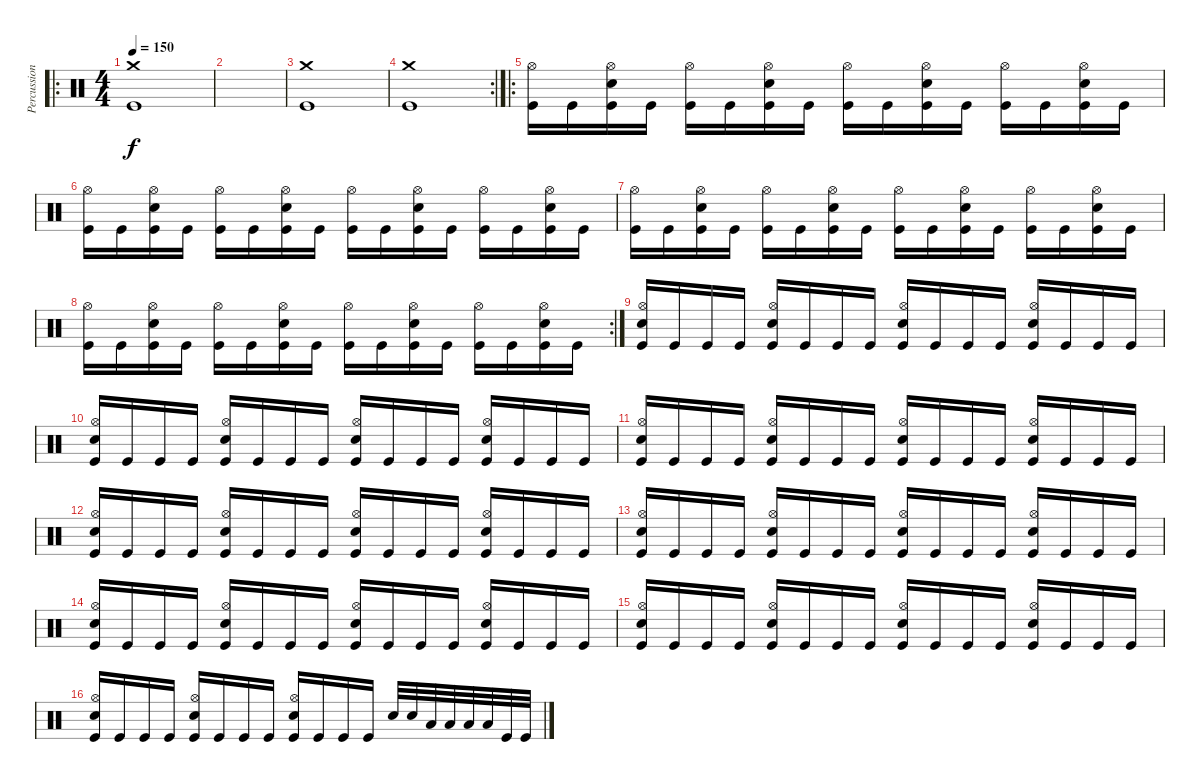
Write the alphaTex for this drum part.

\track ("Percussion" "Percussion") {instrument percussion}
\staff {score}
\articulation defaults
\ro
\ts (4 4)
\tempo 150
\clef neutral
\ks c
("Crash medium (hit)" "Kick (hit)").1{dy f} |
|
("Crash medium (hit)" "Kick (hit)").1 |
\rc 2
("Crash medium (hit)" "Kick (hit)").1 |
\ro
("Hi-Hat (open)" "Kick (hit)").16 "Kick (hit)".16 ("Hi-Hat (open)" "Snare (hit) 2" "Kick (hit)").16 "Kick (hit)".16 ("Hi-Hat (open)" "Kick (hit)").16 "Kick (hit)".16 ("Hi-Hat (open)" "Snare (hit) 2" "Kick (hit)").16 "Kick (hit)".16 ("Hi-Hat (open)" "Kick (hit)").16 "Kick (hit)".16 ("Hi-Hat (open)" "Snare (hit) 2" "Kick (hit)").16 "Kick (hit)".16 ("Hi-Hat (open)" "Kick (hit)").16 "Kick (hit)".16 ("Hi-Hat (open)" "Snare (hit) 2" "Kick (hit)").16 "Kick (hit)".16 |
("Hi-Hat (open)" "Kick (hit)").16 "Kick (hit)".16 ("Hi-Hat (open)" "Snare (hit) 2" "Kick (hit)").16 "Kick (hit)".16 ("Hi-Hat (open)" "Kick (hit)").16 "Kick (hit)".16 ("Hi-Hat (open)" "Snare (hit) 2" "Kick (hit)").16 "Kick (hit)".16 ("Hi-Hat (open)" "Kick (hit)").16 "Kick (hit)".16 ("Hi-Hat (open)" "Snare (hit) 2" "Kick (hit)").16 "Kick (hit)".16 ("Hi-Hat (open)" "Kick (hit)").16 "Kick (hit)".16 ("Hi-Hat (open)" "Snare (hit) 2" "Kick (hit)").16 "Kick (hit)".16 |
("Hi-Hat (open)" "Kick (hit)").16 "Kick (hit)".16 ("Hi-Hat (open)" "Snare (hit) 2" "Kick (hit)").16 "Kick (hit)".16 ("Hi-Hat (open)" "Kick (hit)").16 "Kick (hit)".16 ("Hi-Hat (open)" "Snare (hit) 2" "Kick (hit)").16 "Kick (hit)".16 ("Hi-Hat (open)" "Kick (hit)").16 "Kick (hit)".16 ("Hi-Hat (open)" "Snare (hit) 2" "Kick (hit)").16 "Kick (hit)".16 ("Hi-Hat (open)" "Kick (hit)").16 "Kick (hit)".16 ("Hi-Hat (open)" "Snare (hit) 2" "Kick (hit)").16 "Kick (hit)".16 |
\rc 2
("Hi-Hat (open)" "Kick (hit)").16 "Kick (hit)".16 ("Hi-Hat (open)" "Snare (hit) 2" "Kick (hit)").16 "Kick (hit)".16 ("Hi-Hat (open)" "Kick (hit)").16 "Kick (hit)".16 ("Hi-Hat (open)" "Snare (hit) 2" "Kick (hit)").16 "Kick (hit)".16 ("Hi-Hat (open)" "Kick (hit)").16 "Kick (hit)".16 ("Hi-Hat (open)" "Snare (hit) 2" "Kick (hit)").16 "Kick (hit)".16 ("Hi-Hat (open)" "Kick (hit)").16 "Kick (hit)".16 ("Hi-Hat (open)" "Snare (hit) 2" "Kick (hit)").16 "Kick (hit)".16 |
("Hi-Hat (open)" "Snare (hit) 2" "Kick (hit)").16 "Kick (hit)".16 "Kick (hit)".16 "Kick (hit)".16 ("Hi-Hat (open)" "Snare (hit) 2" "Kick (hit)").16 "Kick (hit)".16 "Kick (hit)".16 "Kick (hit)".16 ("Hi-Hat (open)" "Snare (hit) 2" "Kick (hit)").16 "Kick (hit)".16 "Kick (hit)".16 "Kick (hit)".16 ("Hi-Hat (open)" "Snare (hit) 2" "Kick (hit)").16 "Kick (hit)".16 "Kick (hit)".16 "Kick (hit)".16 |
("Hi-Hat (open)" "Snare (hit) 2" "Kick (hit)").16 "Kick (hit)".16 "Kick (hit)".16 "Kick (hit)".16 ("Hi-Hat (open)" "Snare (hit) 2" "Kick (hit)").16 "Kick (hit)".16 "Kick (hit)".16 "Kick (hit)".16 ("Hi-Hat (open)" "Snare (hit) 2" "Kick (hit)").16 "Kick (hit)".16 "Kick (hit)".16 "Kick (hit)".16 ("Hi-Hat (open)" "Snare (hit) 2" "Kick (hit)").16 "Kick (hit)".16 "Kick (hit)".16 "Kick (hit)".16 |
("Hi-Hat (open)" "Snare (hit) 2" "Kick (hit)").16 "Kick (hit)".16 "Kick (hit)".16 "Kick (hit)".16 ("Hi-Hat (open)" "Snare (hit) 2" "Kick (hit)").16 "Kick (hit)".16 "Kick (hit)".16 "Kick (hit)".16 ("Hi-Hat (open)" "Snare (hit) 2" "Kick (hit)").16 "Kick (hit)".16 "Kick (hit)".16 "Kick (hit)".16 ("Hi-Hat (open)" "Snare (hit) 2" "Kick (hit)").16 "Kick (hit)".16 "Kick (hit)".16 "Kick (hit)".16 |
("Hi-Hat (open)" "Snare (hit) 2" "Kick (hit)").16 "Kick (hit)".16 "Kick (hit)".16 "Kick (hit)".16 ("Hi-Hat (open)" "Snare (hit) 2" "Kick (hit)").16 "Kick (hit)".16 "Kick (hit)".16 "Kick (hit)".16 ("Hi-Hat (open)" "Snare (hit) 2" "Kick (hit)").16 "Kick (hit)".16 "Kick (hit)".16 "Kick (hit)".16 ("Hi-Hat (open)" "Snare (hit) 2" "Kick (hit)").16 "Kick (hit)".16 "Kick (hit)".16 "Kick (hit)".16 |
("Hi-Hat (open)" "Snare (hit) 2" "Kick (hit)").16 "Kick (hit)".16 "Kick (hit)".16 "Kick (hit)".16 ("Hi-Hat (open)" "Snare (hit) 2" "Kick (hit)").16 "Kick (hit)".16 "Kick (hit)".16 "Kick (hit)".16 ("Hi-Hat (open)" "Snare (hit) 2" "Kick (hit)").16 "Kick (hit)".16 "Kick (hit)".16 "Kick (hit)".16 ("Hi-Hat (open)" "Snare (hit) 2" "Kick (hit)").16 "Kick (hit)".16 "Kick (hit)".16 "Kick (hit)".16 |
("Hi-Hat (open)" "Snare (hit) 2" "Kick (hit)").16 "Kick (hit)".16 "Kick (hit)".16 "Kick (hit)".16 ("Hi-Hat (open)" "Snare (hit) 2" "Kick (hit)").16 "Kick (hit)".16 "Kick (hit)".16 "Kick (hit)".16 ("Hi-Hat (open)" "Snare (hit) 2" "Kick (hit)").16 "Kick (hit)".16 "Kick (hit)".16 "Kick (hit)".16 ("Hi-Hat (open)" "Snare (hit) 2" "Kick (hit)").16 "Kick (hit)".16 "Kick (hit)".16 "Kick (hit)".16 |
("Hi-Hat (open)" "Snare (hit) 2" "Kick (hit)").16 "Kick (hit)".16 "Kick (hit)".16 "Kick (hit)".16 ("Hi-Hat (open)" "Snare (hit) 2" "Kick (hit)").16 "Kick (hit)".16 "Kick (hit)".16 "Kick (hit)".16 ("Hi-Hat (open)" "Snare (hit) 2" "Kick (hit)").16 "Kick (hit)".16 "Kick (hit)".16 "Kick (hit)".16 ("Hi-Hat (open)" "Snare (hit) 2" "Kick (hit)").16 "Kick (hit)".16 "Kick (hit)".16 "Kick (hit)".16 |
("Hi-Hat (open)" "Snare (hit) 2" "Kick (hit)").16 "Kick (hit)".16 "Kick (hit)".16 "Kick (hit)".16 ("Hi-Hat (open)" "Snare (hit) 2" "Kick (hit)").16 "Kick (hit)".16 "Kick (hit)".16 "Kick (hit)".16 ("Hi-Hat (open)" "Snare (hit) 2" "Kick (hit)").16 "Kick (hit)".16 "Kick (hit)".16 "Kick (hit)".16 "Snare (hit) 2".32 "Snare (hit) 2".32 "Low Tom (hit)".32 "Low Tom (hit)".32 "Low Floor Tom (hit)".32 "Low Floor Tom (hit)".32 "Kick (hit)".32 "Kick (hit)".32
